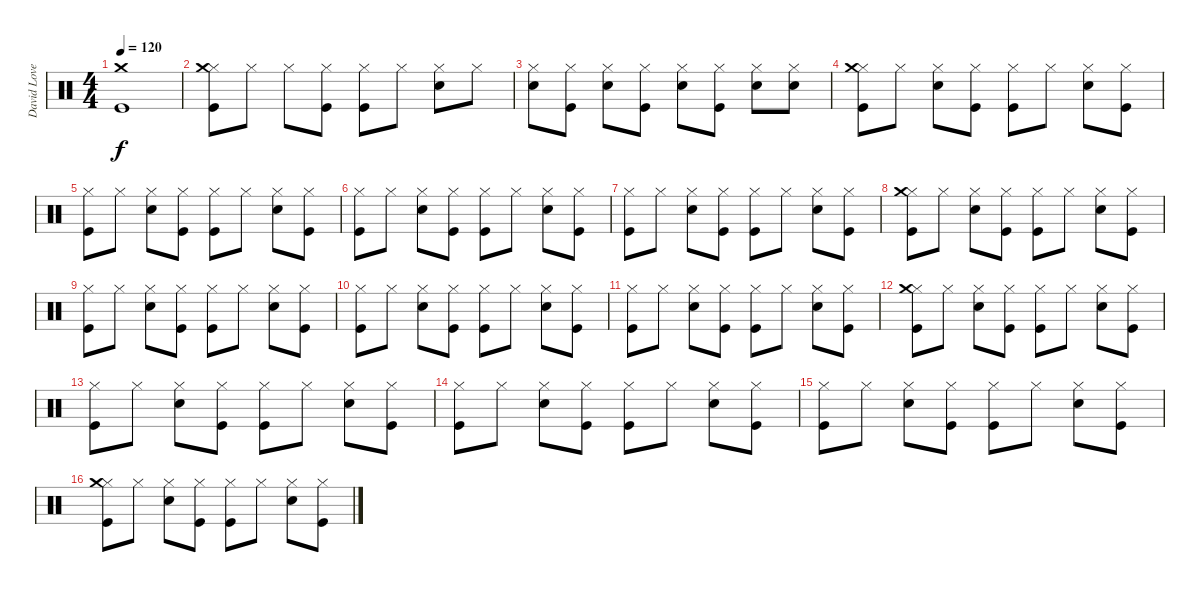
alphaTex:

\track ("David Lovering" "David Love") {instrument percussion}
\staff {score}
\articulation defaults
\ts (4 4)
\tempo 120
\clef neutral
\ks c
("Crash medium (hit)" "Kick (hit)").1{dy f} |
("Hi-Hat (closed)" "Crash medium (hit)" "Kick (hit)").8 "Hi-Hat (closed)".8 "Hi-Hat (closed)".8 ("Hi-Hat (closed)" "Kick (hit)").8 ("Hi-Hat (closed)" "Kick (hit)").8 "Hi-Hat (closed)".8 ("Hi-Hat (closed)" "Snare (hit) 2").8 "Hi-Hat (closed)".8 |
("Hi-Hat (closed)" "Snare (hit) 2").8 ("Hi-Hat (closed)" "Kick (hit)").8 ("Hi-Hat (closed)" "Snare (hit) 2").8 ("Hi-Hat (closed)" "Kick (hit)").8 ("Hi-Hat (closed)" "Snare (hit) 2").8 ("Hi-Hat (closed)" "Kick (hit)").8 ("Hi-Hat (closed)" "Snare (hit) 2").8 ("Hi-Hat (closed)" "Snare (hit) 2").8 |
\section ("" "")
("Hi-Hat (closed)" "Crash medium (hit)" "Kick (hit)").8 "Hi-Hat (closed)".8 ("Hi-Hat (closed)" "Snare (hit) 2").8 ("Hi-Hat (closed)" "Kick (hit)").8 ("Hi-Hat (closed)" "Kick (hit)").8 "Hi-Hat (closed)".8 ("Hi-Hat (closed)" "Snare (hit) 2").8 ("Hi-Hat (closed)" "Kick (hit)").8 |
("Hi-Hat (closed)" "Kick (hit)").8 "Hi-Hat (closed)".8 ("Hi-Hat (closed)" "Snare (hit) 2").8 ("Hi-Hat (closed)" "Kick (hit)").8 ("Hi-Hat (closed)" "Kick (hit)").8 "Hi-Hat (closed)".8 ("Hi-Hat (closed)" "Snare (hit) 2").8 ("Hi-Hat (closed)" "Kick (hit)").8 |
("Hi-Hat (closed)" "Kick (hit)").8 "Hi-Hat (closed)".8 ("Hi-Hat (closed)" "Snare (hit) 2").8 ("Hi-Hat (closed)" "Kick (hit)").8 ("Hi-Hat (closed)" "Kick (hit)").8 "Hi-Hat (closed)".8 ("Hi-Hat (closed)" "Snare (hit) 2").8 ("Hi-Hat (closed)" "Kick (hit)").8 |
("Hi-Hat (closed)" "Kick (hit)").8 "Hi-Hat (closed)".8 ("Hi-Hat (closed)" "Snare (hit) 2").8 ("Hi-Hat (closed)" "Kick (hit)").8 ("Hi-Hat (closed)" "Kick (hit)").8 "Hi-Hat (closed)".8 ("Hi-Hat (closed)" "Snare (hit) 2").8 ("Hi-Hat (closed)" "Kick (hit)").8 |
("Hi-Hat (closed)" "Crash medium (hit)" "Kick (hit)").8 "Hi-Hat (closed)".8 ("Hi-Hat (closed)" "Snare (hit) 2").8 ("Hi-Hat (closed)" "Kick (hit)").8 ("Hi-Hat (closed)" "Kick (hit)").8 "Hi-Hat (closed)".8 ("Hi-Hat (closed)" "Snare (hit) 2").8 ("Hi-Hat (closed)" "Kick (hit)").8 |
("Hi-Hat (closed)" "Kick (hit)").8 "Hi-Hat (closed)".8 ("Hi-Hat (closed)" "Snare (hit) 2").8 ("Hi-Hat (closed)" "Kick (hit)").8 ("Hi-Hat (closed)" "Kick (hit)").8 "Hi-Hat (closed)".8 ("Hi-Hat (closed)" "Snare (hit) 2").8 ("Hi-Hat (closed)" "Kick (hit)").8 |
("Hi-Hat (closed)" "Kick (hit)").8 "Hi-Hat (closed)".8 ("Hi-Hat (closed)" "Snare (hit) 2").8 ("Hi-Hat (closed)" "Kick (hit)").8 ("Hi-Hat (closed)" "Kick (hit)").8 "Hi-Hat (closed)".8 ("Hi-Hat (closed)" "Snare (hit) 2").8 ("Hi-Hat (closed)" "Kick (hit)").8 |
("Hi-Hat (closed)" "Kick (hit)").8 "Hi-Hat (closed)".8 ("Hi-Hat (closed)" "Snare (hit) 2").8 ("Hi-Hat (closed)" "Kick (hit)").8 ("Hi-Hat (closed)" "Kick (hit)").8 "Hi-Hat (closed)".8 ("Hi-Hat (closed)" "Snare (hit) 2").8 ("Hi-Hat (closed)" "Kick (hit)").8 |
("Hi-Hat (closed)" "Crash medium (hit)" "Kick (hit)").8 "Hi-Hat (closed)".8 ("Hi-Hat (closed)" "Snare (hit) 2").8 ("Hi-Hat (closed)" "Kick (hit)").8 ("Hi-Hat (closed)" "Kick (hit)").8 "Hi-Hat (closed)".8 ("Hi-Hat (closed)" "Snare (hit) 2").8 ("Hi-Hat (closed)" "Kick (hit)").8 |
("Hi-Hat (closed)" "Kick (hit)").8 "Hi-Hat (closed)".8 ("Hi-Hat (closed)" "Snare (hit) 2").8 ("Hi-Hat (closed)" "Kick (hit)").8 ("Hi-Hat (closed)" "Kick (hit)").8 "Hi-Hat (closed)".8 ("Hi-Hat (closed)" "Snare (hit) 2").8 ("Hi-Hat (closed)" "Kick (hit)").8 |
("Hi-Hat (closed)" "Kick (hit)").8 "Hi-Hat (closed)".8 ("Hi-Hat (closed)" "Snare (hit) 2").8 ("Hi-Hat (closed)" "Kick (hit)").8 ("Hi-Hat (closed)" "Kick (hit)").8 "Hi-Hat (closed)".8 ("Hi-Hat (closed)" "Snare (hit) 2").8 ("Hi-Hat (closed)" "Kick (hit)").8 |
("Hi-Hat (closed)" "Kick (hit)").8 "Hi-Hat (closed)".8 ("Hi-Hat (closed)" "Snare (hit) 2").8 ("Hi-Hat (closed)" "Kick (hit)").8 ("Hi-Hat (closed)" "Kick (hit)").8 "Hi-Hat (closed)".8 ("Hi-Hat (closed)" "Snare (hit) 2").8 ("Hi-Hat (closed)" "Kick (hit)").8 |
("Hi-Hat (closed)" "Crash medium (hit)" "Kick (hit)").8 "Hi-Hat (closed)".8 ("Hi-Hat (closed)" "Snare (hit) 2").8 ("Hi-Hat (closed)" "Kick (hit)").8 ("Hi-Hat (closed)" "Kick (hit)").8 "Hi-Hat (closed)".8 ("Hi-Hat (closed)" "Snare (hit) 2").8 ("Hi-Hat (closed)" "Kick (hit)").8
